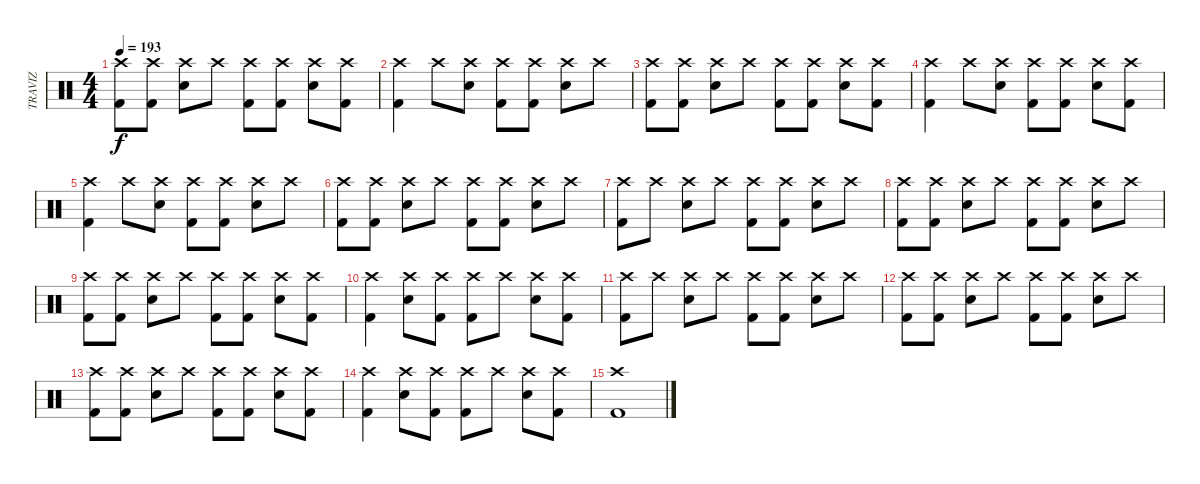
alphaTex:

\track ("TRAVIZ" "TRAVIZ") {instrument percussion}
\staff {score}
\articulation defaults
\ts (4 4)
\tempo 193
\clef neutral
\ks c
("Crash high (hit)" "Kick (hit) 2").8{dy f} ("Crash high (hit)" "Kick (hit) 2").8 ("Crash high (hit)" "Snare (hit) 2").8 "Crash high (hit)".8 ("Crash high (hit)" "Kick (hit) 2").8 ("Crash high (hit)" "Kick (hit) 2").8 ("Crash high (hit)" "Snare (hit) 2").8 ("Crash high (hit)" "Kick (hit) 2").8 |
("Crash high (hit)" "Kick (hit) 2").4 "Crash high (hit)".8 ("Crash high (hit)" "Snare (hit) 2").8 ("Crash high (hit)" "Kick (hit) 2").8 ("Crash high (hit)" "Kick (hit) 2").8 ("Crash high (hit)" "Snare (hit) 2").8 "Crash high (hit)".8 |
("Crash high (hit)" "Kick (hit) 2").8 ("Crash high (hit)" "Kick (hit) 2").8 ("Crash high (hit)" "Snare (hit) 2").8 "Crash high (hit)".8 ("Crash high (hit)" "Kick (hit) 2").8 ("Crash high (hit)" "Kick (hit) 2").8 ("Crash high (hit)" "Snare (hit) 2").8 ("Crash high (hit)" "Kick (hit) 2").8 |
("Crash high (hit)" "Kick (hit) 2").4 "Crash high (hit)".8 ("Crash high (hit)" "Snare (hit) 2").8 ("Crash high (hit)" "Kick (hit) 2").8 ("Crash high (hit)" "Kick (hit) 2").8 ("Crash high (hit)" "Snare (hit) 2").8 ("Crash high (hit)" "Kick (hit) 2").8 |
("Crash high (hit)" "Kick (hit) 2").4 "Crash high (hit)".8 ("Crash high (hit)" "Snare (hit) 2").8 ("Crash high (hit)" "Kick (hit) 2").8 ("Crash high (hit)" "Kick (hit) 2").8 ("Crash high (hit)" "Snare (hit) 2").8 "Crash high (hit)".8 |
("Crash high (hit)" "Kick (hit) 2").8 ("Crash high (hit)" "Kick (hit) 2").8 ("Crash high (hit)" "Snare (hit) 2").8 "Crash high (hit)".8 ("Crash high (hit)" "Kick (hit) 2").8 ("Crash high (hit)" "Kick (hit) 2").8 ("Crash high (hit)" "Snare (hit) 2").8 "Crash high (hit)".8 |
("Crash high (hit)" "Kick (hit) 2").8 "Crash high (hit)".8 ("Crash high (hit)" "Snare (hit) 2").8 "Crash high (hit)".8 ("Crash high (hit)" "Kick (hit) 2").8 ("Crash high (hit)" "Kick (hit) 2").8 ("Crash high (hit)" "Snare (hit) 2").8 "Crash high (hit)".8 |
("Crash high (hit)" "Kick (hit) 2").8 ("Crash high (hit)" "Kick (hit) 2").8 ("Crash high (hit)" "Snare (hit) 2").8 "Crash high (hit)".8 ("Crash high (hit)" "Kick (hit) 2").8 ("Crash high (hit)" "Kick (hit) 2").8 ("Crash high (hit)" "Snare (hit) 2").8 "Crash high (hit)".8 |
("Crash high (hit)" "Kick (hit) 2").8 ("Crash high (hit)" "Kick (hit) 2").8 ("Crash high (hit)" "Snare (hit) 2").8 "Crash high (hit)".8 ("Crash high (hit)" "Kick (hit) 2").8 ("Crash high (hit)" "Kick (hit) 2").8 ("Crash high (hit)" "Snare (hit) 2").8 ("Crash high (hit)" "Kick (hit) 2").8 |
("Crash high (hit)" "Kick (hit) 2").4 ("Crash high (hit)" "Snare (hit) 2").8 ("Crash high (hit)" "Kick (hit) 2").8 ("Crash high (hit)" "Kick (hit) 2").8 "Crash high (hit)".8 ("Crash high (hit)" "Snare (hit) 2").8 ("Crash high (hit)" "Kick (hit) 2").8 |
("Crash high (hit)" "Kick (hit) 2").8 "Crash high (hit)".8 ("Crash high (hit)" "Snare (hit) 2").8 "Crash high (hit)".8 ("Crash high (hit)" "Kick (hit) 2").8 ("Crash high (hit)" "Kick (hit) 2").8 ("Crash high (hit)" "Snare (hit) 2").8 "Crash high (hit)".8 |
("Crash high (hit)" "Kick (hit) 2").8 ("Crash high (hit)" "Kick (hit) 2").8 ("Crash high (hit)" "Snare (hit) 2").8 "Crash high (hit)".8 ("Crash high (hit)" "Kick (hit) 2").8 ("Crash high (hit)" "Kick (hit) 2").8 ("Crash high (hit)" "Snare (hit) 2").8 "Crash high (hit)".8 |
("Crash high (hit)" "Kick (hit) 2").8 ("Crash high (hit)" "Kick (hit) 2").8 ("Crash high (hit)" "Snare (hit) 2").8 "Crash high (hit)".8 ("Crash high (hit)" "Kick (hit) 2").8 ("Crash high (hit)" "Kick (hit) 2").8 ("Crash high (hit)" "Snare (hit) 2").8 ("Crash high (hit)" "Kick (hit) 2").8 |
("Crash high (hit)" "Kick (hit) 2").4 ("Crash high (hit)" "Snare (hit) 2").8 ("Crash high (hit)" "Kick (hit) 2").8 ("Crash high (hit)" "Kick (hit) 2").8 "Crash high (hit)".8 ("Crash high (hit)" "Snare (hit) 2").8 ("Crash high (hit)" "Kick (hit) 2").8 |
("Crash high (hit)" "Kick (hit) 2").1
